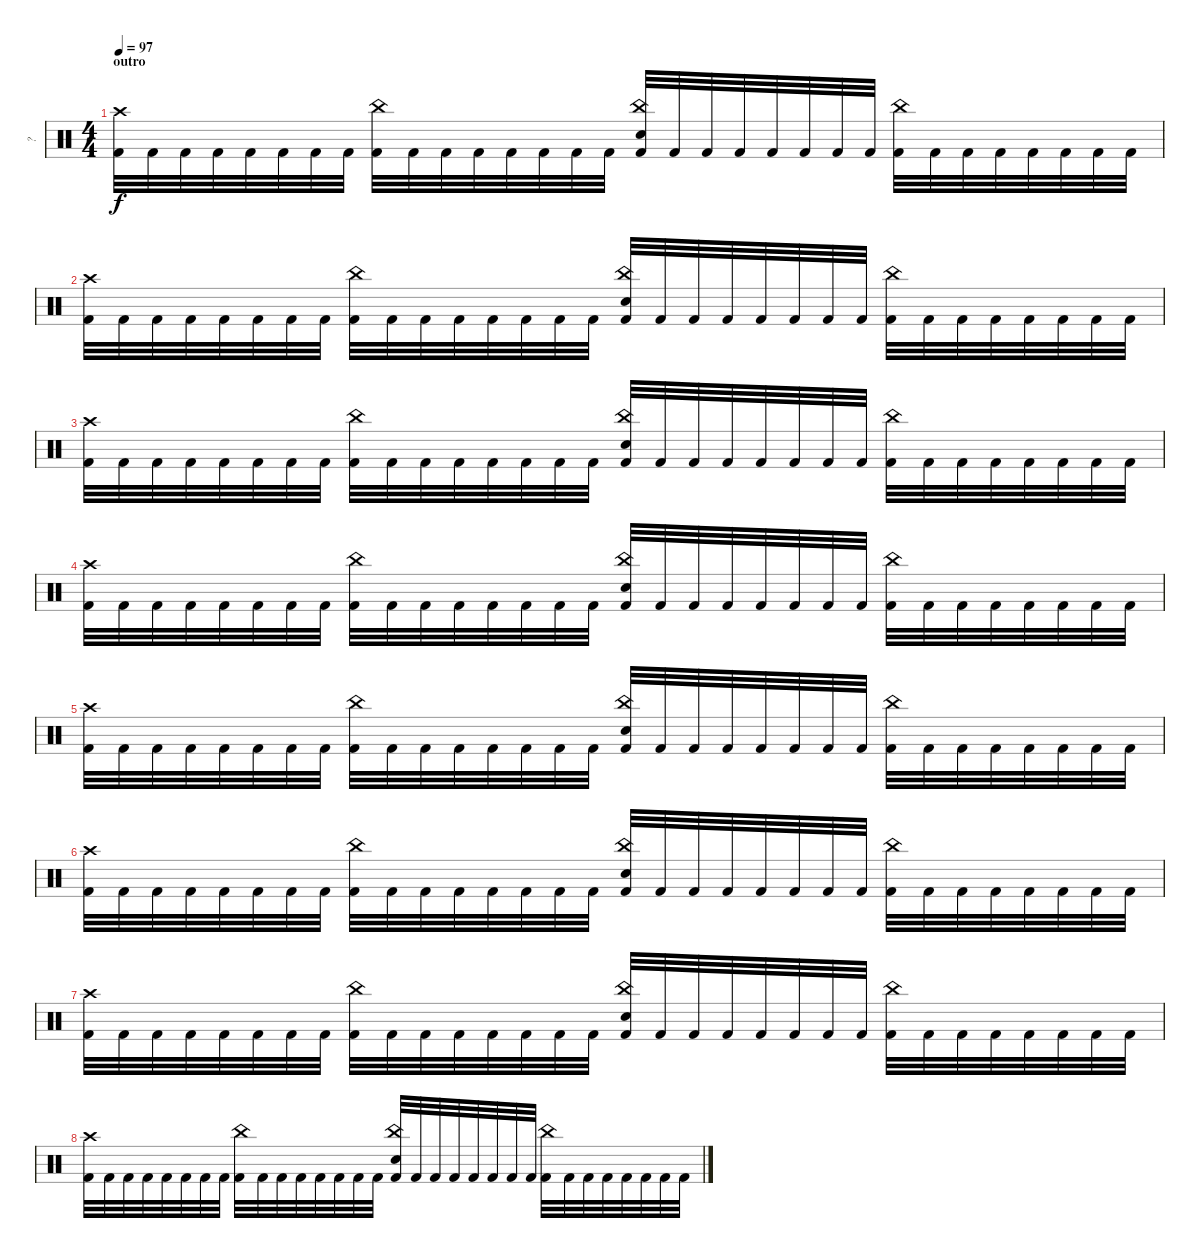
\track ("?" "?") {instrument percussion}
\staff {score}
\articulation defaults
\ts (4 4)
\section ("" "outro")
\tempo 97
\clef neutral
\ks c
("Crash high (hit)" "Kick (hit) 2").32{dy f} "Kick (hit) 2".32 "Kick (hit) 2".32 "Kick (hit) 2".32 "Kick (hit) 2".32 "Kick (hit) 2".32 "Kick (hit) 2".32 "Kick (hit) 2".32 ("China (hit)" "Kick (hit) 2").32 "Kick (hit) 2".32 "Kick (hit) 2".32 "Kick (hit) 2".32 "Kick (hit) 2".32 "Kick (hit) 2".32 "Kick (hit) 2".32 "Kick (hit) 2".32 ("China (hit)" "Electric Snare (hit)" "Kick (hit) 2").32 "Kick (hit) 2".32 "Kick (hit) 2".32 "Kick (hit) 2".32 "Kick (hit) 2".32 "Kick (hit) 2".32 "Kick (hit) 2".32 "Kick (hit) 2".32 ("China (hit)" "Kick (hit) 2").32 "Kick (hit) 2".32 "Kick (hit) 2".32 "Kick (hit) 2".32 "Kick (hit) 2".32 "Kick (hit) 2".32 "Kick (hit) 2".32 "Kick (hit) 2".32 |
("Crash high (hit)" "Kick (hit) 2").32 "Kick (hit) 2".32 "Kick (hit) 2".32 "Kick (hit) 2".32 "Kick (hit) 2".32 "Kick (hit) 2".32 "Kick (hit) 2".32 "Kick (hit) 2".32 ("China (hit)" "Kick (hit) 2").32 "Kick (hit) 2".32 "Kick (hit) 2".32 "Kick (hit) 2".32 "Kick (hit) 2".32 "Kick (hit) 2".32 "Kick (hit) 2".32 "Kick (hit) 2".32 ("China (hit)" "Electric Snare (hit)" "Kick (hit) 2").32 "Kick (hit) 2".32 "Kick (hit) 2".32 "Kick (hit) 2".32 "Kick (hit) 2".32 "Kick (hit) 2".32 "Kick (hit) 2".32 "Kick (hit) 2".32 ("China (hit)" "Kick (hit) 2").32 "Kick (hit) 2".32 "Kick (hit) 2".32 "Kick (hit) 2".32 "Kick (hit) 2".32 "Kick (hit) 2".32 "Kick (hit) 2".32 "Kick (hit) 2".32 |
("Crash high (hit)" "Kick (hit) 2").32 "Kick (hit) 2".32 "Kick (hit) 2".32 "Kick (hit) 2".32 "Kick (hit) 2".32 "Kick (hit) 2".32 "Kick (hit) 2".32 "Kick (hit) 2".32 ("China (hit)" "Kick (hit) 2").32 "Kick (hit) 2".32 "Kick (hit) 2".32 "Kick (hit) 2".32 "Kick (hit) 2".32 "Kick (hit) 2".32 "Kick (hit) 2".32 "Kick (hit) 2".32 ("China (hit)" "Electric Snare (hit)" "Kick (hit) 2").32 "Kick (hit) 2".32 "Kick (hit) 2".32 "Kick (hit) 2".32 "Kick (hit) 2".32 "Kick (hit) 2".32 "Kick (hit) 2".32 "Kick (hit) 2".32 ("China (hit)" "Kick (hit) 2").32 "Kick (hit) 2".32 "Kick (hit) 2".32 "Kick (hit) 2".32 "Kick (hit) 2".32 "Kick (hit) 2".32 "Kick (hit) 2".32 "Kick (hit) 2".32 |
("Crash high (hit)" "Kick (hit) 2").32 "Kick (hit) 2".32 "Kick (hit) 2".32 "Kick (hit) 2".32 "Kick (hit) 2".32 "Kick (hit) 2".32 "Kick (hit) 2".32 "Kick (hit) 2".32 ("China (hit)" "Kick (hit) 2").32 "Kick (hit) 2".32 "Kick (hit) 2".32 "Kick (hit) 2".32 "Kick (hit) 2".32 "Kick (hit) 2".32 "Kick (hit) 2".32 "Kick (hit) 2".32 ("China (hit)" "Electric Snare (hit)" "Kick (hit) 2").32 "Kick (hit) 2".32 "Kick (hit) 2".32 "Kick (hit) 2".32 "Kick (hit) 2".32 "Kick (hit) 2".32 "Kick (hit) 2".32 "Kick (hit) 2".32 ("China (hit)" "Kick (hit) 2").32 "Kick (hit) 2".32 "Kick (hit) 2".32 "Kick (hit) 2".32 "Kick (hit) 2".32 "Kick (hit) 2".32 "Kick (hit) 2".32 "Kick (hit) 2".32 |
("Crash high (hit)" "Kick (hit) 2").32 "Kick (hit) 2".32 "Kick (hit) 2".32 "Kick (hit) 2".32 "Kick (hit) 2".32 "Kick (hit) 2".32 "Kick (hit) 2".32 "Kick (hit) 2".32 ("China (hit)" "Kick (hit) 2").32 "Kick (hit) 2".32 "Kick (hit) 2".32 "Kick (hit) 2".32 "Kick (hit) 2".32 "Kick (hit) 2".32 "Kick (hit) 2".32 "Kick (hit) 2".32 ("China (hit)" "Electric Snare (hit)" "Kick (hit) 2").32 "Kick (hit) 2".32 "Kick (hit) 2".32 "Kick (hit) 2".32 "Kick (hit) 2".32 "Kick (hit) 2".32 "Kick (hit) 2".32 "Kick (hit) 2".32 ("China (hit)" "Kick (hit) 2").32 "Kick (hit) 2".32 "Kick (hit) 2".32 "Kick (hit) 2".32 "Kick (hit) 2".32 "Kick (hit) 2".32 "Kick (hit) 2".32 "Kick (hit) 2".32 |
("Crash high (hit)" "Kick (hit) 2").32 "Kick (hit) 2".32 "Kick (hit) 2".32 "Kick (hit) 2".32 "Kick (hit) 2".32 "Kick (hit) 2".32 "Kick (hit) 2".32 "Kick (hit) 2".32 ("China (hit)" "Kick (hit) 2").32 "Kick (hit) 2".32 "Kick (hit) 2".32 "Kick (hit) 2".32 "Kick (hit) 2".32 "Kick (hit) 2".32 "Kick (hit) 2".32 "Kick (hit) 2".32 ("China (hit)" "Electric Snare (hit)" "Kick (hit) 2").32 "Kick (hit) 2".32 "Kick (hit) 2".32 "Kick (hit) 2".32 "Kick (hit) 2".32 "Kick (hit) 2".32 "Kick (hit) 2".32 "Kick (hit) 2".32 ("China (hit)" "Kick (hit) 2").32 "Kick (hit) 2".32 "Kick (hit) 2".32 "Kick (hit) 2".32 "Kick (hit) 2".32 "Kick (hit) 2".32 "Kick (hit) 2".32 "Kick (hit) 2".32 |
("Crash high (hit)" "Kick (hit) 2").32 "Kick (hit) 2".32 "Kick (hit) 2".32 "Kick (hit) 2".32 "Kick (hit) 2".32 "Kick (hit) 2".32 "Kick (hit) 2".32 "Kick (hit) 2".32 ("China (hit)" "Kick (hit) 2").32 "Kick (hit) 2".32 "Kick (hit) 2".32 "Kick (hit) 2".32 "Kick (hit) 2".32 "Kick (hit) 2".32 "Kick (hit) 2".32 "Kick (hit) 2".32 ("China (hit)" "Electric Snare (hit)" "Kick (hit) 2").32 "Kick (hit) 2".32 "Kick (hit) 2".32 "Kick (hit) 2".32 "Kick (hit) 2".32 "Kick (hit) 2".32 "Kick (hit) 2".32 "Kick (hit) 2".32 ("China (hit)" "Kick (hit) 2").32 "Kick (hit) 2".32 "Kick (hit) 2".32 "Kick (hit) 2".32 "Kick (hit) 2".32 "Kick (hit) 2".32 "Kick (hit) 2".32 "Kick (hit) 2".32 |
("Crash high (hit)" "Kick (hit) 2").32 "Kick (hit) 2".32 "Kick (hit) 2".32 "Kick (hit) 2".32 "Kick (hit) 2".32 "Kick (hit) 2".32 "Kick (hit) 2".32 "Kick (hit) 2".32 ("China (hit)" "Kick (hit) 2").32 "Kick (hit) 2".32 "Kick (hit) 2".32 "Kick (hit) 2".32 "Kick (hit) 2".32 "Kick (hit) 2".32 "Kick (hit) 2".32 "Kick (hit) 2".32 ("China (hit)" "Electric Snare (hit)" "Kick (hit) 2").32 "Kick (hit) 2".32 "Kick (hit) 2".32 "Kick (hit) 2".32 "Kick (hit) 2".32 "Kick (hit) 2".32 "Kick (hit) 2".32 "Kick (hit) 2".32 ("China (hit)" "Kick (hit) 2").32 "Kick (hit) 2".32 "Kick (hit) 2".32 "Kick (hit) 2".32 "Kick (hit) 2".32 "Kick (hit) 2".32 "Kick (hit) 2".32 "Kick (hit) 2".32
